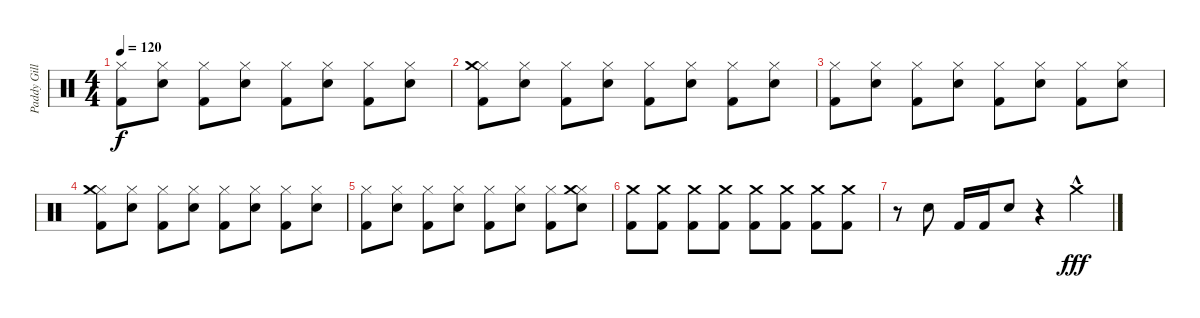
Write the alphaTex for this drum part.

\track ("Paddy Gillespie" "Paddy Gill") {instrument percussion}
\staff {score}
\articulation defaults
\ts (4 4)
\tempo 120
\clef neutral
\ks c
("Hi-Hat (closed)" "Kick (hit) 2").8{dy f} ("Hi-Hat (closed)" "Snare (hit) 2").8 ("Hi-Hat (closed)" "Kick (hit) 2").8 ("Hi-Hat (closed)" "Snare (hit) 2").8 ("Hi-Hat (closed)" "Kick (hit) 2").8 ("Hi-Hat (closed)" "Snare (hit) 2").8 ("Hi-Hat (closed)" "Kick (hit) 2").8 ("Hi-Hat (closed)" "Snare (hit) 2").8 |
("Hi-Hat (closed)" "Kick (hit) 2" "Crash medium (hit)").8 ("Hi-Hat (closed)" "Snare (hit) 2").8 ("Hi-Hat (closed)" "Kick (hit) 2").8 ("Hi-Hat (closed)" "Snare (hit) 2").8 ("Hi-Hat (closed)" "Kick (hit) 2").8 ("Hi-Hat (closed)" "Snare (hit) 2").8 ("Hi-Hat (closed)" "Kick (hit) 2").8 ("Hi-Hat (closed)" "Snare (hit) 2").8 |
("Hi-Hat (closed)" "Kick (hit) 2").8 ("Hi-Hat (closed)" "Snare (hit) 2").8 ("Hi-Hat (closed)" "Kick (hit) 2").8 ("Hi-Hat (closed)" "Snare (hit) 2").8 ("Hi-Hat (closed)" "Kick (hit) 2").8 ("Hi-Hat (closed)" "Snare (hit) 2").8 ("Hi-Hat (closed)" "Kick (hit) 2").8 ("Hi-Hat (closed)" "Snare (hit) 2").8 |
("Hi-Hat (closed)" "Kick (hit) 2" "Crash medium (hit)").8 ("Hi-Hat (closed)" "Snare (hit) 2").8 ("Hi-Hat (closed)" "Kick (hit) 2").8 ("Hi-Hat (closed)" "Snare (hit) 2").8 ("Hi-Hat (closed)" "Kick (hit) 2").8 ("Hi-Hat (closed)" "Snare (hit) 2").8 ("Hi-Hat (closed)" "Kick (hit) 2").8 ("Hi-Hat (closed)" "Snare (hit) 2").8 |
("Hi-Hat (closed)" "Kick (hit) 2").8 ("Hi-Hat (closed)" "Snare (hit) 2").8 ("Hi-Hat (closed)" "Kick (hit) 2").8 ("Hi-Hat (closed)" "Snare (hit) 2").8 ("Hi-Hat (closed)" "Kick (hit) 2").8 ("Hi-Hat (closed)" "Snare (hit) 2").8 ("Hi-Hat (closed)" "Kick (hit) 2").8 ("Hi-Hat (closed)" "Snare (hit) 2" "Crash medium (hit)").8 |
("Kick (hit) 2" "Crash medium (hit)").8 ("Kick (hit) 2" "Crash medium (hit)").8 ("Kick (hit) 2" "Crash medium (hit)").8 ("Kick (hit) 2" "Crash medium (hit)").8 ("Kick (hit) 2" "Crash medium (hit)").8 ("Kick (hit) 2" "Crash medium (hit)").8 ("Kick (hit) 2" "Crash medium (hit)").8 ("Kick (hit) 2" "Crash medium (hit)").8 |
r.8 "Snare (hit) 2".8 "Kick (hit) 2".16 "Kick (hit) 2".16 "Snare (hit) 2".8 r.4 "Crash medium (hit)"{hac}.4{dy fff}
